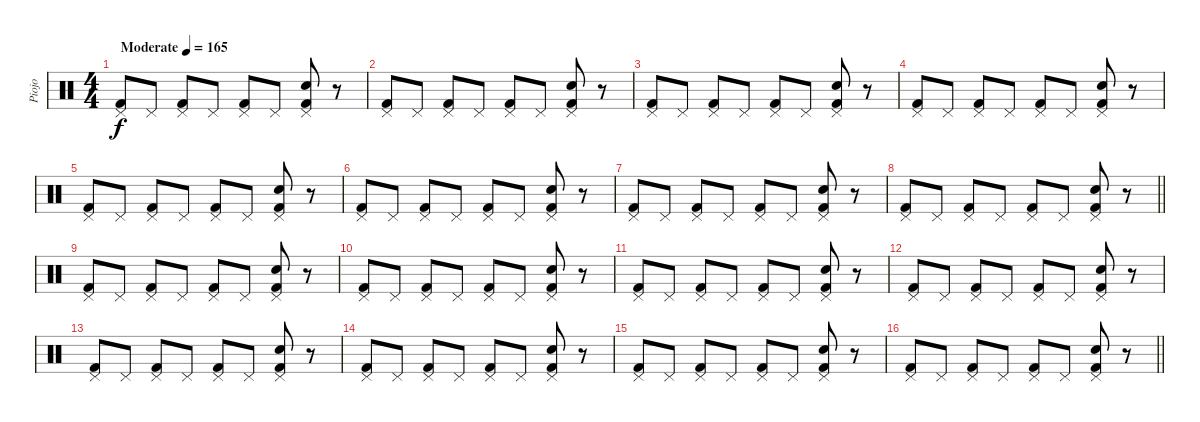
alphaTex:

\track ("Piojo" "Piojo") {instrument percussion}
\staff {score}
\articulation defaults
\ts (4 4)
\tempo (165 "Moderate")
\clef neutral
\ks c
("Pedal Hi-Hat (hit)" "Kick (hit) 2").8{dy f} "Pedal Hi-Hat (hit)".8 ("Pedal Hi-Hat (hit)" "Kick (hit) 2").8 "Pedal Hi-Hat (hit)".8 ("Pedal Hi-Hat (hit)" "Kick (hit) 2").8 "Pedal Hi-Hat (hit)".8 ("Pedal Hi-Hat (hit)" "Electric Snare (hit)" "Kick (hit) 2").8 r.8 |
("Pedal Hi-Hat (hit)" "Kick (hit) 2").8 "Pedal Hi-Hat (hit)".8 ("Pedal Hi-Hat (hit)" "Kick (hit) 2").8 "Pedal Hi-Hat (hit)".8 ("Pedal Hi-Hat (hit)" "Kick (hit) 2").8 "Pedal Hi-Hat (hit)".8 ("Pedal Hi-Hat (hit)" "Electric Snare (hit)" "Kick (hit) 2").8 r.8 |
("Pedal Hi-Hat (hit)" "Kick (hit) 2").8 "Pedal Hi-Hat (hit)".8 ("Pedal Hi-Hat (hit)" "Kick (hit) 2").8 "Pedal Hi-Hat (hit)".8 ("Pedal Hi-Hat (hit)" "Kick (hit) 2").8 "Pedal Hi-Hat (hit)".8 ("Pedal Hi-Hat (hit)" "Electric Snare (hit)" "Kick (hit) 2").8 r.8 |
("Pedal Hi-Hat (hit)" "Kick (hit) 2").8 "Pedal Hi-Hat (hit)".8 ("Pedal Hi-Hat (hit)" "Kick (hit) 2").8 "Pedal Hi-Hat (hit)".8 ("Pedal Hi-Hat (hit)" "Kick (hit) 2").8 "Pedal Hi-Hat (hit)".8 ("Pedal Hi-Hat (hit)" "Electric Snare (hit)" "Kick (hit) 2").8 r.8 |
("Pedal Hi-Hat (hit)" "Kick (hit) 2").8 "Pedal Hi-Hat (hit)".8 ("Pedal Hi-Hat (hit)" "Kick (hit) 2").8 "Pedal Hi-Hat (hit)".8 ("Pedal Hi-Hat (hit)" "Kick (hit) 2").8 "Pedal Hi-Hat (hit)".8 ("Pedal Hi-Hat (hit)" "Electric Snare (hit)" "Kick (hit) 2").8 r.8 |
("Pedal Hi-Hat (hit)" "Kick (hit) 2").8 "Pedal Hi-Hat (hit)".8 ("Pedal Hi-Hat (hit)" "Kick (hit) 2").8 "Pedal Hi-Hat (hit)".8 ("Pedal Hi-Hat (hit)" "Kick (hit) 2").8 "Pedal Hi-Hat (hit)".8 ("Pedal Hi-Hat (hit)" "Electric Snare (hit)" "Kick (hit) 2").8 r.8 |
("Pedal Hi-Hat (hit)" "Kick (hit) 2").8 "Pedal Hi-Hat (hit)".8 ("Pedal Hi-Hat (hit)" "Kick (hit) 2").8 "Pedal Hi-Hat (hit)".8 ("Pedal Hi-Hat (hit)" "Kick (hit) 2").8 "Pedal Hi-Hat (hit)".8 ("Pedal Hi-Hat (hit)" "Electric Snare (hit)" "Kick (hit) 2").8 r.8 |
\barLineRight lightlight
("Pedal Hi-Hat (hit)" "Kick (hit) 2").8 "Pedal Hi-Hat (hit)".8 ("Pedal Hi-Hat (hit)" "Kick (hit) 2").8 "Pedal Hi-Hat (hit)".8 ("Pedal Hi-Hat (hit)" "Kick (hit) 2").8 "Pedal Hi-Hat (hit)".8 ("Pedal Hi-Hat (hit)" "Electric Snare (hit)" "Kick (hit) 2").8 r.8 |
("Pedal Hi-Hat (hit)" "Kick (hit) 2").8 "Pedal Hi-Hat (hit)".8 ("Pedal Hi-Hat (hit)" "Kick (hit) 2").8 "Pedal Hi-Hat (hit)".8 ("Pedal Hi-Hat (hit)" "Kick (hit) 2").8 "Pedal Hi-Hat (hit)".8 ("Pedal Hi-Hat (hit)" "Electric Snare (hit)" "Kick (hit) 2").8 r.8 |
("Pedal Hi-Hat (hit)" "Kick (hit) 2").8 "Pedal Hi-Hat (hit)".8 ("Pedal Hi-Hat (hit)" "Kick (hit) 2").8 "Pedal Hi-Hat (hit)".8 ("Pedal Hi-Hat (hit)" "Kick (hit) 2").8 "Pedal Hi-Hat (hit)".8 ("Pedal Hi-Hat (hit)" "Electric Snare (hit)" "Kick (hit) 2").8 r.8 |
("Pedal Hi-Hat (hit)" "Kick (hit) 2").8 "Pedal Hi-Hat (hit)".8 ("Pedal Hi-Hat (hit)" "Kick (hit) 2").8 "Pedal Hi-Hat (hit)".8 ("Pedal Hi-Hat (hit)" "Kick (hit) 2").8 "Pedal Hi-Hat (hit)".8 ("Pedal Hi-Hat (hit)" "Electric Snare (hit)" "Kick (hit) 2").8 r.8 |
("Pedal Hi-Hat (hit)" "Kick (hit) 2").8 "Pedal Hi-Hat (hit)".8 ("Pedal Hi-Hat (hit)" "Kick (hit) 2").8 "Pedal Hi-Hat (hit)".8 ("Pedal Hi-Hat (hit)" "Kick (hit) 2").8 "Pedal Hi-Hat (hit)".8 ("Pedal Hi-Hat (hit)" "Electric Snare (hit)" "Kick (hit) 2").8 r.8 |
("Pedal Hi-Hat (hit)" "Kick (hit) 2").8 "Pedal Hi-Hat (hit)".8 ("Pedal Hi-Hat (hit)" "Kick (hit) 2").8 "Pedal Hi-Hat (hit)".8 ("Pedal Hi-Hat (hit)" "Kick (hit) 2").8 "Pedal Hi-Hat (hit)".8 ("Pedal Hi-Hat (hit)" "Electric Snare (hit)" "Kick (hit) 2").8 r.8 |
("Pedal Hi-Hat (hit)" "Kick (hit) 2").8 "Pedal Hi-Hat (hit)".8 ("Pedal Hi-Hat (hit)" "Kick (hit) 2").8 "Pedal Hi-Hat (hit)".8 ("Pedal Hi-Hat (hit)" "Kick (hit) 2").8 "Pedal Hi-Hat (hit)".8 ("Pedal Hi-Hat (hit)" "Electric Snare (hit)" "Kick (hit) 2").8 r.8 |
("Pedal Hi-Hat (hit)" "Kick (hit) 2").8 "Pedal Hi-Hat (hit)".8 ("Pedal Hi-Hat (hit)" "Kick (hit) 2").8 "Pedal Hi-Hat (hit)".8 ("Pedal Hi-Hat (hit)" "Kick (hit) 2").8 "Pedal Hi-Hat (hit)".8 ("Pedal Hi-Hat (hit)" "Electric Snare (hit)" "Kick (hit) 2").8 r.8 |
\barLineRight lightlight
("Pedal Hi-Hat (hit)" "Kick (hit) 2").8 "Pedal Hi-Hat (hit)".8 ("Pedal Hi-Hat (hit)" "Kick (hit) 2").8 "Pedal Hi-Hat (hit)".8 ("Pedal Hi-Hat (hit)" "Kick (hit) 2").8 "Pedal Hi-Hat (hit)".8 ("Pedal Hi-Hat (hit)" "Electric Snare (hit)" "Kick (hit) 2").8 r.8
